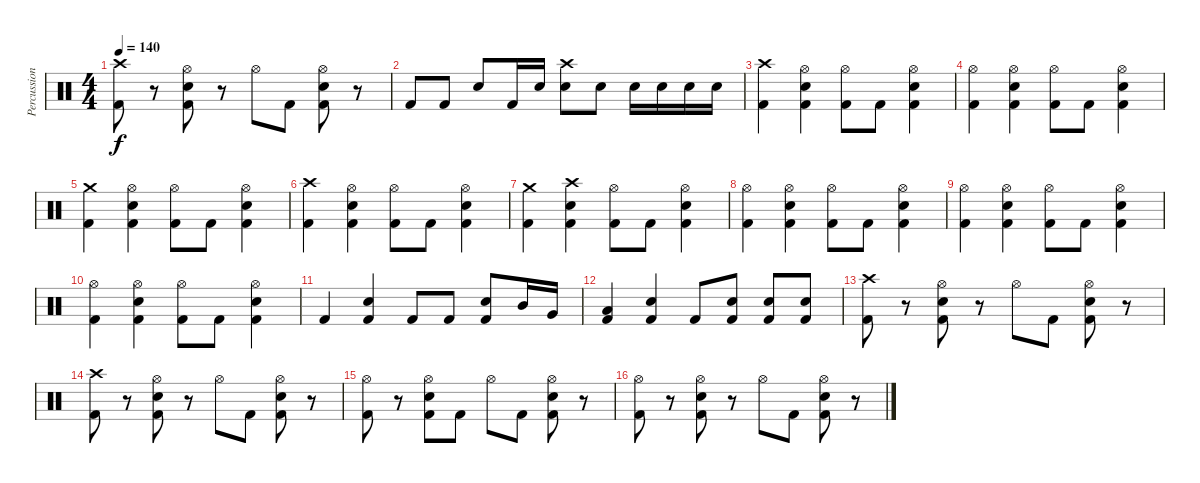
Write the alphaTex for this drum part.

\track ("Percussion" "Percussion") {instrument percussion}
\staff {score}
\articulation defaults
\ts (4 4)
\tempo 140
\clef neutral
\ks c
("Crash high (hit)" "Kick (hit) 2").8{dy f} r.8 ("Snare (hit) 2" "Hi-Hat (open)" "Kick (hit) 2").8 r.8 "Hi-Hat (open)".8 "Kick (hit) 2".8 ("Snare (hit) 2" "Hi-Hat (open)" "Kick (hit) 2").8 r.8 |
"Kick (hit) 2".8 "Kick (hit) 2".8 "Snare (hit) 2".8 "Kick (hit) 2".16 "Snare (hit) 2".16 ("Crash high (hit)" "Snare (hit) 2").8 "Snare (hit) 2".8 "Snare (hit) 2".16 "Snare (hit) 2".16 "Snare (hit) 2".16 "Snare (hit) 2".16 |
("Crash high (hit)" "Kick (hit) 2").4 ("Snare (hit) 2" "Hi-Hat (open)" "Kick (hit) 2").4 ("Hi-Hat (open)" "Kick (hit) 2").8 "Kick (hit) 2".8 ("Snare (hit) 2" "Hi-Hat (open)" "Kick (hit) 2").4 |
("Hi-Hat (open)" "Kick (hit) 2").4 ("Snare (hit) 2" "Hi-Hat (open)" "Kick (hit) 2").4 ("Hi-Hat (open)" "Kick (hit) 2").8 "Kick (hit) 2".8 ("Snare (hit) 2" "Hi-Hat (open)" "Kick (hit) 2").4 |
("Crash medium (hit)" "Kick (hit) 2").4 ("Snare (hit) 2" "Hi-Hat (open)" "Kick (hit) 2").4 ("Hi-Hat (open)" "Kick (hit) 2").8 "Kick (hit) 2".8 ("Snare (hit) 2" "Hi-Hat (open)" "Kick (hit) 2").4 |
("Crash high (hit)" "Kick (hit) 2").4 ("Snare (hit) 2" "Hi-Hat (open)" "Kick (hit) 2").4 ("Hi-Hat (open)" "Kick (hit) 2").8 "Kick (hit) 2".8 ("Snare (hit) 2" "Hi-Hat (open)" "Kick (hit) 2").4 |
("Crash medium (hit)" "Kick (hit) 2").4 ("Crash high (hit)" "Snare (hit) 2" "Kick (hit) 2").4 ("Hi-Hat (open)" "Kick (hit) 2").8 "Kick (hit) 2".8 ("Snare (hit) 2" "Hi-Hat (open)" "Kick (hit) 2").4 |
("Hi-Hat (open)" "Kick (hit) 2").4 ("Snare (hit) 2" "Hi-Hat (open)" "Kick (hit) 2").4 ("Hi-Hat (open)" "Kick (hit) 2").8 "Kick (hit) 2".8 ("Snare (hit) 2" "Hi-Hat (open)" "Kick (hit) 2").4 |
("Hi-Hat (open)" "Kick (hit) 2").4 ("Snare (hit) 2" "Hi-Hat (open)" "Kick (hit) 2").4 ("Hi-Hat (open)" "Kick (hit) 2").8 "Kick (hit) 2".8 ("Snare (hit) 2" "Hi-Hat (open)" "Kick (hit) 2").4 |
("Hi-Hat (open)" "Kick (hit) 2").4 ("Snare (hit) 2" "Hi-Hat (open)" "Kick (hit) 2").4 ("Hi-Hat (open)" "Kick (hit) 2").8 "Kick (hit) 2".8 ("Snare (hit) 2" "Hi-Hat (open)" "Kick (hit) 2").4 |
"Kick (hit) 2".4 ("Snare (hit) 2" "Kick (hit) 2").4 "Kick (hit) 2".8 "Kick (hit) 2".8 ("Snare (hit) 2" "Kick (hit) 2").8 "Mid Tom (hit)".16 "Very Low Tom (hit)".16 |
("Low Floor Tom (hit)" "Kick (hit) 2").4 ("Snare (hit) 2" "Kick (hit) 2").4 "Kick (hit) 2".8 ("Snare (hit) 2" "Kick (hit) 2").8 ("Snare (hit) 2" "Kick (hit) 2").8 ("Snare (hit) 2" "Kick (hit) 2").8 |
("Crash high (hit)" "Kick (hit) 2").8 r.8 ("Snare (hit) 2" "Hi-Hat (open)" "Kick (hit) 2").8 r.8 "Hi-Hat (open)".8 "Kick (hit) 2".8 ("Snare (hit) 2" "Hi-Hat (open)" "Kick (hit) 2").8 r.8 |
("Crash high (hit)" "Kick (hit) 2").8 r.8 ("Snare (hit) 2" "Hi-Hat (open)" "Kick (hit) 2").8 r.8 "Hi-Hat (open)".8 "Kick (hit) 2".8 ("Snare (hit) 2" "Hi-Hat (open)" "Kick (hit) 2").8 r.8 |
("Hi-Hat (open)" "Kick (hit) 2").8 r.8 ("Snare (hit) 2" "Hi-Hat (open)" "Kick (hit) 2").8 "Kick (hit) 2".8 "Hi-Hat (open)".8 "Kick (hit) 2".8 ("Snare (hit) 2" "Hi-Hat (open)" "Kick (hit) 2").8 r.8 |
("Hi-Hat (open)" "Kick (hit) 2").8 r.8 ("Snare (hit) 2" "Hi-Hat (open)" "Kick (hit) 2").8 r.8 "Hi-Hat (open)".8 "Kick (hit) 2".8 ("Snare (hit) 2" "Hi-Hat (open)" "Kick (hit) 2").8 r.8
